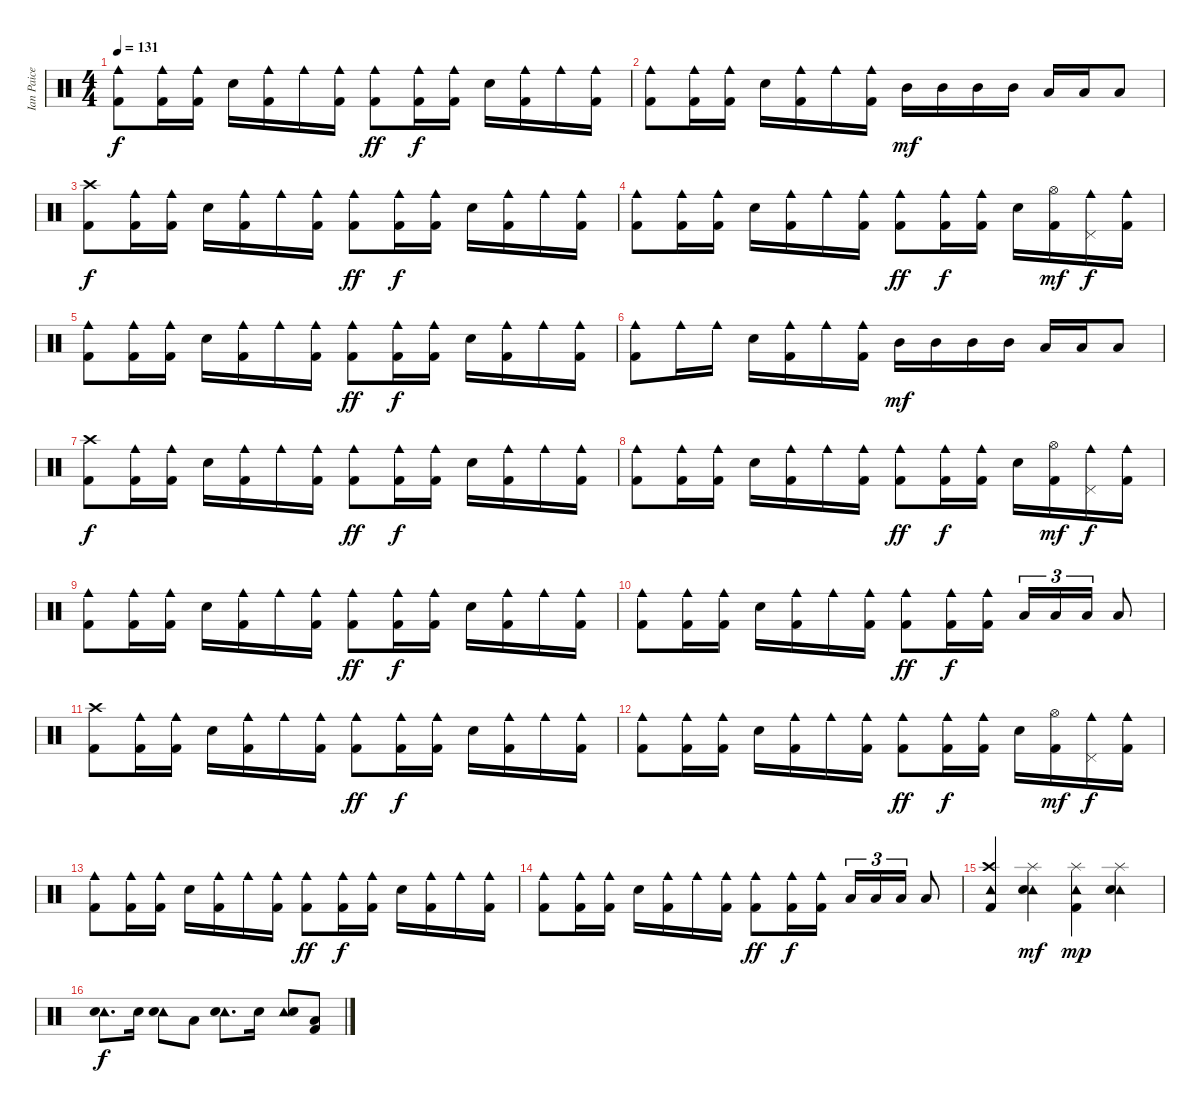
\track ("Ian Paice" "Ian Paice") {instrument percussion}
\staff {score}
\articulation defaults
\ts (4 4)
\tempo 131
\clef neutral
\ks c
("Cowbell medium (hit)" "Kick (hit) 2").8{dy f} ("Cowbell medium (hit)" "Kick (hit) 2").16 ("Cowbell medium (hit)" "Kick (hit) 2").16 "Snare (hit) 2".16 ("Cowbell medium (hit)" "Kick (hit) 2").16 "Cowbell medium (hit)".16 ("Cowbell medium (hit)" "Kick (hit) 2").16 ("Cowbell medium (hit)" "Kick (hit) 2").8{dy ff} ("Cowbell medium (hit)" "Kick (hit) 2").16{dy f} ("Cowbell medium (hit)" "Kick (hit) 2").16 "Snare (hit) 2".16 ("Cowbell medium (hit)" "Kick (hit) 2").16 "Cowbell medium (hit)".16 ("Cowbell medium (hit)" "Kick (hit) 2").16 |
("Cowbell medium (hit)" "Kick (hit) 2").8 ("Cowbell medium (hit)" "Kick (hit) 2").16 ("Cowbell medium (hit)" "Kick (hit) 2").16 "Snare (hit) 2".16 ("Cowbell medium (hit)" "Kick (hit) 2").16 "Cowbell medium (hit)".16 ("Cowbell medium (hit)" "Kick (hit) 2").16 "Mid Tom (hit)".16{dy mf} "Mid Tom (hit)".16 "Mid Tom (hit)".16 "Mid Tom (hit)".16 "Low Tom (hit)".16 "Low Tom (hit)".16 "Low Tom (hit)".8 |
("Crash high (hit)" "Kick (hit) 2").8{dy f} ("Cowbell medium (hit)" "Kick (hit) 2").16 ("Cowbell medium (hit)" "Kick (hit) 2").16 "Snare (hit) 2".16 ("Cowbell medium (hit)" "Kick (hit) 2").16 "Cowbell medium (hit)".16 ("Cowbell medium (hit)" "Kick (hit) 2").16 ("Cowbell medium (hit)" "Kick (hit) 2").8{dy ff} ("Cowbell medium (hit)" "Kick (hit) 2").16{dy f} ("Cowbell medium (hit)" "Kick (hit) 2").16 "Snare (hit) 2".16 ("Cowbell medium (hit)" "Kick (hit) 2").16 "Cowbell medium (hit)".16 ("Cowbell medium (hit)" "Kick (hit) 2").16 |
("Cowbell medium (hit)" "Kick (hit) 2").8 ("Cowbell medium (hit)" "Kick (hit) 2").16 ("Cowbell medium (hit)" "Kick (hit) 2").16 "Snare (hit) 2".16 ("Cowbell medium (hit)" "Kick (hit) 2").16 "Cowbell medium (hit)".16 ("Cowbell medium (hit)" "Kick (hit) 2").16 ("Cowbell medium (hit)" "Kick (hit) 2").8{dy ff} ("Cowbell medium (hit)" "Kick (hit) 2").16{dy f} ("Cowbell medium (hit)" "Kick (hit) 2").16 "Snare (hit) 2".16 ("Hi-Hat (open)" "Kick (hit) 2").16{dy mf} ("Pedal Hi-Hat (hit)" "Cowbell medium (hit)").16{dy f} ("Cowbell medium (hit)" "Kick (hit) 2").16 |
("Cowbell medium (hit)" "Kick (hit) 2").8 ("Cowbell medium (hit)" "Kick (hit) 2").16 ("Cowbell medium (hit)" "Kick (hit) 2").16 "Snare (hit) 2".16 ("Cowbell medium (hit)" "Kick (hit) 2").16 "Cowbell medium (hit)".16 ("Cowbell medium (hit)" "Kick (hit) 2").16 ("Cowbell medium (hit)" "Kick (hit) 2").8{dy ff} ("Cowbell medium (hit)" "Kick (hit) 2").16{dy f} ("Cowbell medium (hit)" "Kick (hit) 2").16 "Snare (hit) 2".16 ("Cowbell medium (hit)" "Kick (hit) 2").16 "Cowbell medium (hit)".16 ("Cowbell medium (hit)" "Kick (hit) 2").16 |
("Cowbell medium (hit)" "Kick (hit) 2").8 "Cowbell medium (hit)".16 "Cowbell medium (hit)".16 "Snare (hit) 2".16 ("Cowbell medium (hit)" "Kick (hit) 2").16 "Cowbell medium (hit)".16 ("Cowbell medium (hit)" "Kick (hit) 2").16 "Mid Tom (hit)".16{dy mf} "Mid Tom (hit)".16 "Mid Tom (hit)".16 "Mid Tom (hit)".16 "Low Tom (hit)".16 "Low Tom (hit)".16 "Low Tom (hit)".8 |
("Crash high (hit)" "Kick (hit) 2").8{dy f} ("Cowbell medium (hit)" "Kick (hit) 2").16 ("Cowbell medium (hit)" "Kick (hit) 2").16 "Snare (hit) 2".16 ("Cowbell medium (hit)" "Kick (hit) 2").16 "Cowbell medium (hit)".16 ("Cowbell medium (hit)" "Kick (hit) 2").16 ("Cowbell medium (hit)" "Kick (hit) 2").8{dy ff} ("Cowbell medium (hit)" "Kick (hit) 2").16{dy f} ("Cowbell medium (hit)" "Kick (hit) 2").16 "Snare (hit) 2".16 ("Cowbell medium (hit)" "Kick (hit) 2").16 "Cowbell medium (hit)".16 ("Cowbell medium (hit)" "Kick (hit) 2").16 |
("Cowbell medium (hit)" "Kick (hit) 2").8 ("Cowbell medium (hit)" "Kick (hit) 2").16 ("Cowbell medium (hit)" "Kick (hit) 2").16 "Snare (hit) 2".16 ("Cowbell medium (hit)" "Kick (hit) 2").16 "Cowbell medium (hit)".16 ("Cowbell medium (hit)" "Kick (hit) 2").16 ("Cowbell medium (hit)" "Kick (hit) 2").8{dy ff} ("Cowbell medium (hit)" "Kick (hit) 2").16{dy f} ("Cowbell medium (hit)" "Kick (hit) 2").16 "Snare (hit) 2".16 ("Hi-Hat (open)" "Kick (hit) 2").16{dy mf} ("Pedal Hi-Hat (hit)" "Cowbell medium (hit)").16{dy f} ("Cowbell medium (hit)" "Kick (hit) 2").16 |
("Cowbell medium (hit)" "Kick (hit) 2").8 ("Cowbell medium (hit)" "Kick (hit) 2").16 ("Cowbell medium (hit)" "Kick (hit) 2").16 "Snare (hit) 2".16 ("Cowbell medium (hit)" "Kick (hit) 2").16 "Cowbell medium (hit)".16 ("Cowbell medium (hit)" "Kick (hit) 2").16 ("Cowbell medium (hit)" "Kick (hit) 2").8{dy ff} ("Cowbell medium (hit)" "Kick (hit) 2").16{dy f} ("Cowbell medium (hit)" "Kick (hit) 2").16 "Snare (hit) 2".16 ("Cowbell medium (hit)" "Kick (hit) 2").16 "Cowbell medium (hit)".16 ("Cowbell medium (hit)" "Kick (hit) 2").16 |
("Cowbell medium (hit)" "Kick (hit) 2").8 ("Cowbell medium (hit)" "Kick (hit) 2").16 ("Cowbell medium (hit)" "Kick (hit) 2").16 "Snare (hit) 2".16 ("Cowbell medium (hit)" "Kick (hit) 2").16 "Cowbell medium (hit)".16 ("Cowbell medium (hit)" "Kick (hit) 2").16 ("Cowbell medium (hit)" "Kick (hit) 2").8{dy ff} ("Cowbell medium (hit)" "Kick (hit) 2").16{dy f} ("Cowbell medium (hit)" "Kick (hit) 2").16 "Low Tom (hit)".16{tu (3 2)} "Low Tom (hit)".16{tu (3 2)} "Low Tom (hit)".16{tu (3 2)} "Low Floor Tom (hit)".8 |
("Crash high (hit)" "Kick (hit) 2").8 ("Cowbell medium (hit)" "Kick (hit) 2").16 ("Cowbell medium (hit)" "Kick (hit) 2").16 "Snare (hit) 2".16 ("Cowbell medium (hit)" "Kick (hit) 2").16 "Cowbell medium (hit)".16 ("Cowbell medium (hit)" "Kick (hit) 2").16 ("Cowbell medium (hit)" "Kick (hit) 2").8{dy ff} ("Cowbell medium (hit)" "Kick (hit) 2").16{dy f} ("Cowbell medium (hit)" "Kick (hit) 2").16 "Snare (hit) 2".16 ("Cowbell medium (hit)" "Kick (hit) 2").16 "Cowbell medium (hit)".16 ("Cowbell medium (hit)" "Kick (hit) 2").16 |
("Cowbell medium (hit)" "Kick (hit) 2").8 ("Cowbell medium (hit)" "Kick (hit) 2").16 ("Cowbell medium (hit)" "Kick (hit) 2").16 "Snare (hit) 2".16 ("Cowbell medium (hit)" "Kick (hit) 2").16 "Cowbell medium (hit)".16 ("Cowbell medium (hit)" "Kick (hit) 2").16 ("Cowbell medium (hit)" "Kick (hit) 2").8{dy ff} ("Cowbell medium (hit)" "Kick (hit) 2").16{dy f} ("Cowbell medium (hit)" "Kick (hit) 2").16 "Snare (hit) 2".16 ("Hi-Hat (open)" "Kick (hit) 2").16{dy mf} ("Pedal Hi-Hat (hit)" "Cowbell medium (hit)").16{dy f} ("Cowbell medium (hit)" "Kick (hit) 2").16 |
("Cowbell medium (hit)" "Kick (hit) 2").8 ("Cowbell medium (hit)" "Kick (hit) 2").16 ("Cowbell medium (hit)" "Kick (hit) 2").16 "Snare (hit) 2".16 ("Cowbell medium (hit)" "Kick (hit) 2").16 "Cowbell medium (hit)".16 ("Cowbell medium (hit)" "Kick (hit) 2").16 ("Cowbell medium (hit)" "Kick (hit) 2").8{dy ff} ("Cowbell medium (hit)" "Kick (hit) 2").16{dy f} ("Cowbell medium (hit)" "Kick (hit) 2").16 "Snare (hit) 2".16 ("Cowbell medium (hit)" "Kick (hit) 2").16 "Cowbell medium (hit)".16 ("Cowbell medium (hit)" "Kick (hit) 2").16 |
("Cowbell medium (hit)" "Kick (hit) 2").8 ("Cowbell medium (hit)" "Kick (hit) 2").16 ("Cowbell medium (hit)" "Kick (hit) 2").16 "Snare (hit) 2".16 ("Cowbell medium (hit)" "Kick (hit) 2").16 "Cowbell medium (hit)".16 ("Cowbell medium (hit)" "Kick (hit) 2").16 ("Cowbell medium (hit)" "Kick (hit) 2").8{dy ff} ("Cowbell medium (hit)" "Kick (hit) 2").16{dy f} ("Cowbell medium (hit)" "Kick (hit) 2").16 "Low Floor Tom (hit)".16{tu (3 2)} "Low Floor Tom (hit)".16{tu (3 2)} "Low Tom (hit)".16{tu (3 2)} "Low Floor Tom (hit)".8 |
("Crash high (hit)" "Tambourine (hit)" "Kick (hit) 2").4 ("Splash (hit)" "Tambourine (hit)" "Snare (hit) 2").4{dy mf} ("Splash (hit)" "Tambourine (hit)" "Kick (hit) 2").4{dy mp} ("Splash (hit)" "Tambourine (hit)" "Snare (hit) 2").4 |
("Tambourine (hit)" "Snare (hit) 2").8{d dy f} "Snare (hit) 2".16 ("Tambourine (hit)" "Snare (hit) 2").8 "Low Tom (hit)".8 ("Tambourine (hit)" "Snare (hit) 2").8{d} "Snare (hit) 2".16 ("Tambourine (hit)" "Snare (hit) 2").8 ("Low Tom (hit)" "Kick (hit) 2").8
